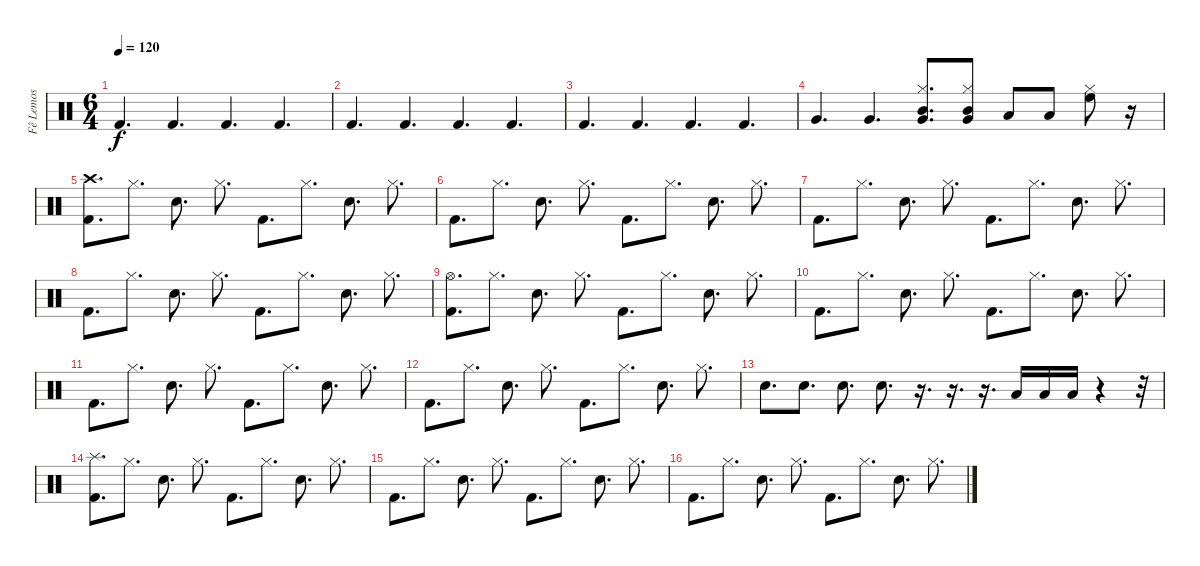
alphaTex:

\track ("Fê Lemos" "Fê Lemos") {instrument percussion}
\staff {score}
\articulation defaults
\ts (6 4)
\tempo 120
\clef neutral
\ks c "Kick (hit) 2".4{d dy f} "Kick (hit) 2".4{d} "Kick (hit) 2".4{d} "Kick (hit) 2".4{d}
|
"Kick (hit) 2".4{d} "Kick (hit) 2".4{d} "Kick (hit) 2".4{d} "Kick (hit) 2".4{d} |
"Kick (hit) 2".4{d} "Kick (hit) 2".4{d} "Kick (hit) 2".4{d} "Kick (hit) 2".4{d} |
"Very Low Tom (hit)".4{d} "Very Low Tom (hit)".4{d} ("Hi-Hat (closed)" "Mid Tom (hit)" "Very Low Tom (hit)").8{d} ("Hi-Hat (closed)" "Mid Tom (hit)" "Very Low Tom (hit)").8 "Low Tom (hit)".8 "Low Tom (hit)".8 ("Hi-Hat (closed)" "High Floor Tom (hit)").8 r.16 |
("Crash high (hit)" "Kick (hit) 2").8{d} "Hi-Hat (closed)".8{d} "Electric Snare (hit)".8{d} "Hi-Hat (closed)".8{d} "Kick (hit) 2".8{d} "Hi-Hat (closed)".8{d} "Electric Snare (hit)".8{d} "Hi-Hat (closed)".8{d} |
"Kick (hit) 2".8{d} "Hi-Hat (closed)".8{d} "Electric Snare (hit)".8{d} "Hi-Hat (closed)".8{d} "Kick (hit) 2".8{d} "Hi-Hat (closed)".8{d} "Electric Snare (hit)".8{d} "Hi-Hat (closed)".8{d} |
"Kick (hit) 2".8{d} "Hi-Hat (closed)".8{d} "Electric Snare (hit)".8{d} "Hi-Hat (closed)".8{d} "Kick (hit) 2".8{d} "Hi-Hat (closed)".8{d} "Electric Snare (hit)".8{d} "Hi-Hat (closed)".8{d} |
"Kick (hit) 2".8{d} "Hi-Hat (closed)".8{d} "Electric Snare (hit)".8{d} "Hi-Hat (closed)".8{d} "Kick (hit) 2".8{d} "Hi-Hat (closed)".8{d} "Electric Snare (hit)".8{d} "Hi-Hat (closed)".8{d} |
("Hi-Hat (open)" "Kick (hit) 2").8{d} "Hi-Hat (closed)".8{d} "Electric Snare (hit)".8{d} "Hi-Hat (closed)".8{d} "Kick (hit) 2".8{d} "Hi-Hat (closed)".8{d} "Electric Snare (hit)".8{d} "Hi-Hat (closed)".8{d} |
"Kick (hit) 2".8{d} "Hi-Hat (closed)".8{d} "Electric Snare (hit)".8{d} "Hi-Hat (closed)".8{d} "Kick (hit) 2".8{d} "Hi-Hat (closed)".8{d} "Electric Snare (hit)".8{d} "Hi-Hat (closed)".8{d} |
"Kick (hit) 2".8{d} "Hi-Hat (closed)".8{d} "Electric Snare (hit)".8{d} "Hi-Hat (closed)".8{d} "Kick (hit) 2".8{d} "Hi-Hat (closed)".8{d} "Electric Snare (hit)".8{d} "Hi-Hat (closed)".8{d} |
"Kick (hit) 2".8{d} "Hi-Hat (closed)".8{d} "Electric Snare (hit)".8{d} "Hi-Hat (closed)".8{d} "Kick (hit) 2".8{d} "Hi-Hat (closed)".8{d} "Electric Snare (hit)".8{d} "Hi-Hat (closed)".8{d} |
"Snare (hit)".8{d} "Snare (hit)".8{d} "Snare (hit)".8{d} "Snare (hit)".8{d} r.16{d} r.16{d} r.16{d} "Low Tom (hit)".16 "Low Tom (hit)".16 "Low Tom (hit)".16 r.4 r.32 |
("Splash (hit)" "Kick (hit) 2").8{d} "Hi-Hat (closed)".8{d} "Electric Snare (hit)".8{d} "Hi-Hat (closed)".8{d} "Kick (hit) 2".8{d} "Hi-Hat (closed)".8{d} "Electric Snare (hit)".8{d} "Hi-Hat (closed)".8{d} |
"Kick (hit) 2".8{d} "Hi-Hat (closed)".8{d} "Electric Snare (hit)".8{d} "Hi-Hat (closed)".8{d} "Kick (hit) 2".8{d} "Hi-Hat (closed)".8{d} "Electric Snare (hit)".8{d} "Hi-Hat (closed)".8{d} |
"Kick (hit) 2".8{d} "Hi-Hat (closed)".8{d} "Electric Snare (hit)".8{d} "Hi-Hat (closed)".8{d} "Kick (hit) 2".8{d} "Hi-Hat (closed)".8{d} "Electric Snare (hit)".8{d} "Hi-Hat (closed)".8{d}
